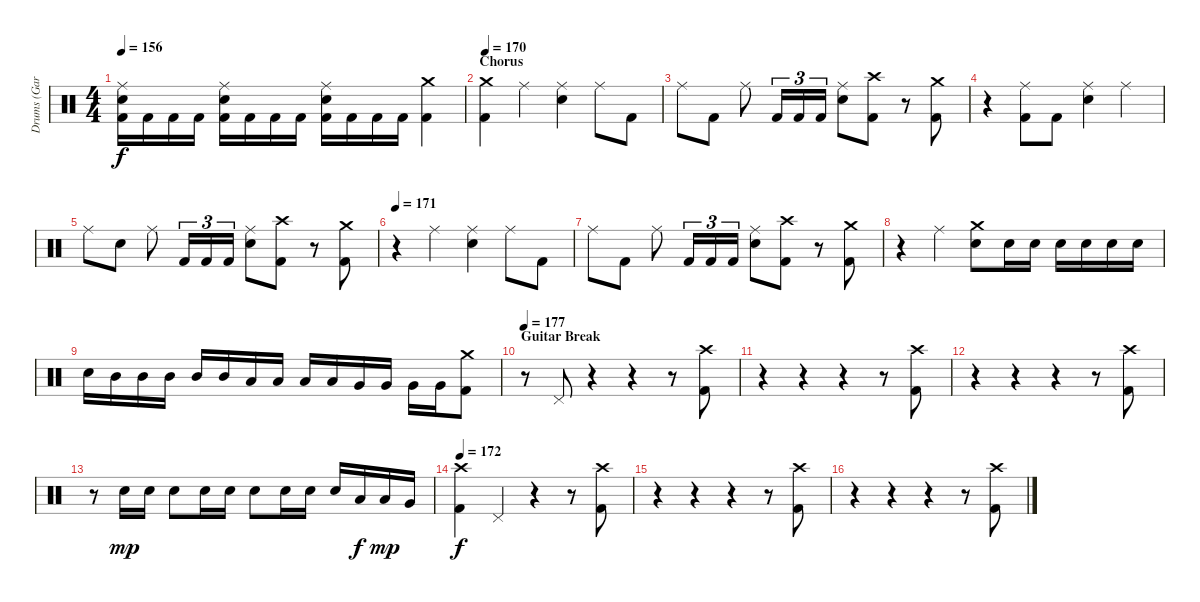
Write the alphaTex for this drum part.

\track ("Drums (Gar Samuelson)" "Drums (Gar") {instrument percussion}
\staff {score}
\articulation defaults
\ts (4 4)
\tempo 156
\clef neutral
\ks c
("Ride (middle)" "Snare (hit) 2" "Kick (hit) 2").16{dy f} "Kick (hit) 2".16 "Kick (hit) 2".16 "Kick (hit) 2".16 ("Ride (middle)" "Snare (hit) 2" "Kick (hit) 2").16 "Kick (hit) 2".16 "Kick (hit) 2".16 "Kick (hit) 2".16 ("Ride (middle)" "Snare (hit) 2" "Kick (hit) 2").16 "Kick (hit) 2".16 "Kick (hit) 2".16 "Kick (hit) 2".16 ("Crash medium (hit)" "Kick (hit) 2").4 |
\section ("" "Chorus")
\tempo 166
\tempo 170
("Crash medium (hit)" "Kick (hit) 2").4 "Ride (middle)".4 ("Ride (middle)" "Snare (hit) 2").4 "Ride (middle)".8 "Kick (hit) 2".8 |
"Ride (middle)".8 "Kick (hit) 2".8 "Ride (middle)".8 "Kick (hit) 2".16{tu (3 2)} "Kick (hit) 2".16{tu (3 2)} "Kick (hit) 2".16{tu (3 2)} ("Ride (middle)" "Snare (hit) 2").8 ("Crash high (hit)" "Kick (hit) 2").8 r.8 ("Crash medium (hit)" "Kick (hit) 2").8 |
r.4 ("Ride (middle)" "Kick (hit) 2").8 "Kick (hit) 2".8 ("Ride (middle)" "Snare (hit) 2").4 "Ride (middle)".4 |
"Ride (middle)".8 "Snare (hit) 2".8 "Ride (middle)".8 "Kick (hit) 2".16{tu (3 2)} "Kick (hit) 2".16{tu (3 2)} "Kick (hit) 2".16{tu (3 2)} ("Ride (middle)" "Snare (hit) 2").8 ("Crash high (hit)" "Kick (hit) 2").8 r.8 ("Crash medium (hit)" "Kick (hit) 2").8 |
\tempo 171
r.4 "Ride (middle)".4 ("Ride (middle)" "Snare (hit) 2").4 "Ride (middle)".8 "Kick (hit) 2".8 |
"Ride (middle)".8 "Kick (hit) 2".8 "Ride (middle)".8 "Kick (hit) 2".16{tu (3 2)} "Kick (hit) 2".16{tu (3 2)} "Kick (hit) 2".16{tu (3 2)} ("Ride (middle)" "Snare (hit) 2").8 ("Crash high (hit)" "Kick (hit) 2").8 r.8 ("Crash medium (hit)" "Kick (hit) 2").8 |
r.4 "Ride (middle)".4 ("Crash medium (hit)" "Snare (hit) 2").8 "Snare (hit) 2".16 "Snare (hit) 2".16 "Snare (hit) 2".16 "Snare (hit) 2".16 "Snare (hit) 2".16 "Snare (hit) 2".16 |
"Snare (hit) 2".16 "Mid Tom (hit)".16 "Mid Tom (hit)".16 "Mid Tom (hit)".16 "Mid Tom (hit)".16 "Mid Tom (hit)".16 "Low Tom (hit)".16 "Low Tom (hit)".16 "Low Tom (hit)".16 "Low Tom (hit)".16 "Very Low Tom (hit)".16 "Very Low Tom (hit)".16 "Very Low Tom (hit)".16 "Very Low Tom (hit)".16 ("Crash medium (hit)" "Kick (hit) 2").8 |
\section ("" "Guitar Break")
\tempo 177
r.8 "Pedal Hi-Hat (hit)".8 r.4 r.4 r.8 ("Crash high (hit)" "Kick (hit) 2").8 |
r.4 r.4 r.4 r.8 ("Crash high (hit)" "Kick (hit) 2").8 |
r.4 r.4 r.4 r.8 ("Crash high (hit)" "Kick (hit) 2").8 |
r.8 "Snare (hit) 2".16{dy mp} "Snare (hit) 2".16 "Snare (hit) 2".8 "Snare (hit) 2".16 "Snare (hit) 2".16 "Snare (hit) 2".8 "Snare (hit) 2".16 "Snare (hit) 2".16 "Snare (hit) 2".16 "Low Tom (hit)".16{dy f} "Low Tom (hit)".16{dy mp} "Very Low Tom (hit)".16 |
\tempo 172
("Crash high (hit)" "Kick (hit) 2").4{dy f} "Pedal Hi-Hat (hit)".4 r.4 r.8 ("Crash high (hit)" "Kick (hit) 2").8 |
r.4 r.4 r.4 r.8 ("Crash high (hit)" "Kick (hit) 2").8 |
r.4 r.4 r.4 r.8 ("Crash high (hit)" "Kick (hit) 2").8
